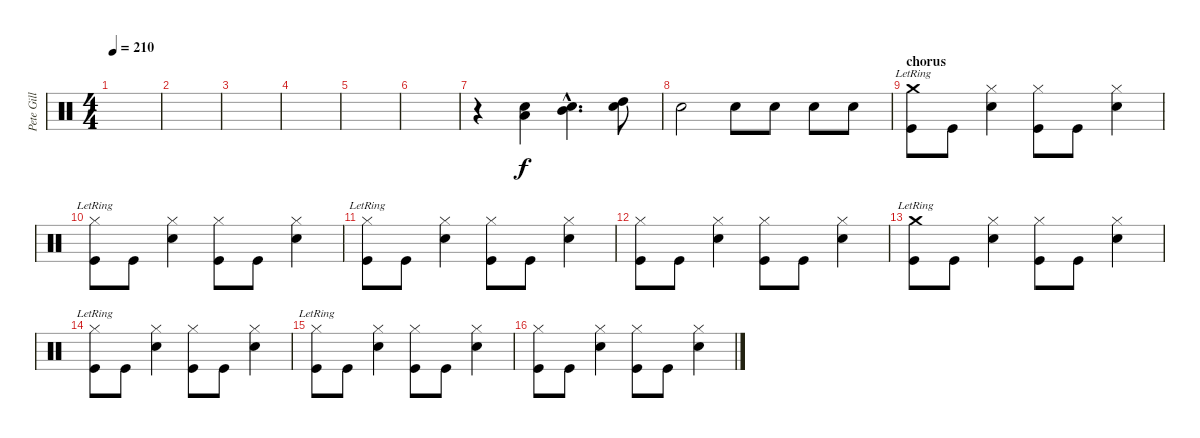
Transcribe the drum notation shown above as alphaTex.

\track ("Pete Gill" "Pete Gill") {instrument percussion}
\staff {score}
\articulation defaults
\ts (4 4)
\tempo 210
\clef neutral
\ks c
|
|
|
|
|
|
r.4 ("Low Tom (hit)" "Snare (hit) 2").4 ("Mid Tom (hit)"{hac} "Snare (hit) 2"{hac}).4{d} ("High Tom (hit)" "Snare (hit) 2").8 |
"Snare (hit) 2".2 "Snare (hit) 2".8 "Snare (hit) 2".8 "Snare (hit) 2".8 "Snare (hit) 2".8 |
\section ("" "chorus")
("Crash medium (hit)"{lr} "Kick (hit)").8 "Kick (hit)".8 ("Hi-Hat (closed)" "Snare (hit) 2").4 ("Hi-Hat (closed)" "Kick (hit)").8 "Kick (hit)".8 ("Hi-Hat (closed)" "Snare (hit) 2").4 |
("Hi-Hat (closed)"{lr} "Kick (hit)").8 "Kick (hit)".8 ("Hi-Hat (closed)" "Snare (hit) 2").4 ("Hi-Hat (closed)" "Kick (hit)").8 "Kick (hit)".8 ("Hi-Hat (closed)" "Snare (hit) 2").4 |
("Hi-Hat (closed)"{lr} "Kick (hit)").8 "Kick (hit)".8 ("Hi-Hat (closed)" "Snare (hit) 2").4 ("Hi-Hat (closed)" "Kick (hit)").8 "Kick (hit)".8 ("Hi-Hat (closed)" "Snare (hit) 2").4 |
("Hi-Hat (closed)" "Kick (hit)").8 "Kick (hit)".8 ("Hi-Hat (closed)" "Snare (hit) 2").4 ("Hi-Hat (closed)" "Kick (hit)").8 "Kick (hit)".8 ("Hi-Hat (closed)" "Snare (hit) 2").4 |
("Crash medium (hit)"{lr} "Kick (hit)").8 "Kick (hit)".8 ("Hi-Hat (closed)" "Snare (hit) 2").4 ("Hi-Hat (closed)" "Kick (hit)").8 "Kick (hit)".8 ("Hi-Hat (closed)" "Snare (hit) 2").4 |
("Hi-Hat (closed)"{lr} "Kick (hit)").8 "Kick (hit)".8 ("Hi-Hat (closed)" "Snare (hit) 2").4 ("Hi-Hat (closed)" "Kick (hit)").8 "Kick (hit)".8 ("Hi-Hat (closed)" "Snare (hit) 2").4 |
("Hi-Hat (closed)"{lr} "Kick (hit)").8 "Kick (hit)".8 ("Hi-Hat (closed)" "Snare (hit) 2").4 ("Hi-Hat (closed)" "Kick (hit)").8 "Kick (hit)".8 ("Hi-Hat (closed)" "Snare (hit) 2").4 |
("Hi-Hat (closed)" "Kick (hit)").8 "Kick (hit)".8 ("Hi-Hat (closed)" "Snare (hit) 2").4 ("Hi-Hat (closed)" "Kick (hit)").8 "Kick (hit)".8 ("Hi-Hat (closed)" "Snare (hit) 2").4
